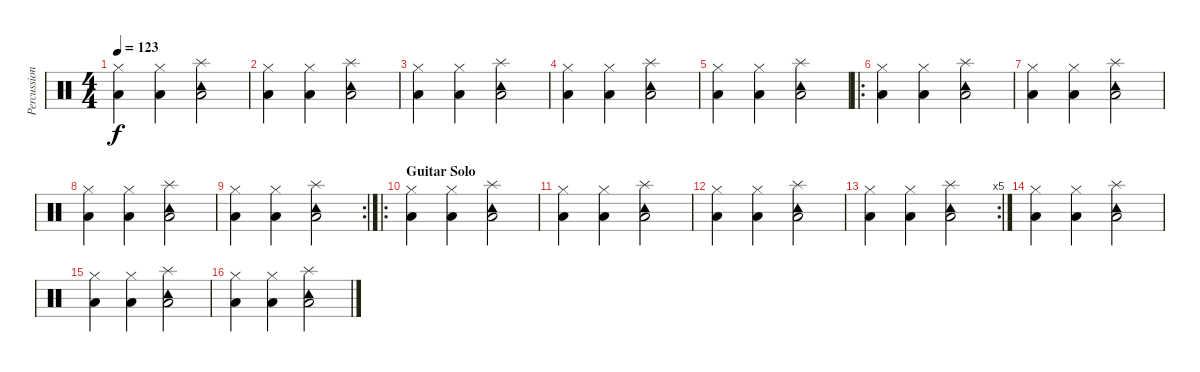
\track ("Percussion" "Percussion") {instrument percussion}
\staff {score}
\articulation defaults
\ts (4 4)
\tempo 123
\clef neutral
\ks c
("Low Floor Tom (hit)" "Hi-Hat (closed)").4{dy f} ("Low Floor Tom (hit)" "Hi-Hat (closed)").4 ("Splash (hit)" "Low Floor Tom (hit)" "Tambourine (hit)").2 |
("Low Floor Tom (hit)" "Hi-Hat (closed)").4 ("Low Floor Tom (hit)" "Hi-Hat (closed)").4 ("Splash (hit)" "Low Floor Tom (hit)" "Tambourine (hit)").2 |
("Low Floor Tom (hit)" "Hi-Hat (closed)").4 ("Low Floor Tom (hit)" "Hi-Hat (closed)").4 ("Splash (hit)" "Low Floor Tom (hit)" "Tambourine (hit)").2 |
("Low Floor Tom (hit)" "Hi-Hat (closed)").4 ("Low Floor Tom (hit)" "Hi-Hat (closed)").4 ("Splash (hit)" "Low Floor Tom (hit)" "Tambourine (hit)").2 |
("Low Floor Tom (hit)" "Hi-Hat (closed)").4 ("Low Floor Tom (hit)" "Hi-Hat (closed)").4 ("Splash (hit)" "Low Floor Tom (hit)" "Tambourine (hit)").2 |
\ro
("Low Floor Tom (hit)" "Hi-Hat (closed)").4 ("Low Floor Tom (hit)" "Hi-Hat (closed)").4 ("Splash (hit)" "Low Floor Tom (hit)" "Tambourine (hit)").2 |
("Low Floor Tom (hit)" "Hi-Hat (closed)").4 ("Low Floor Tom (hit)" "Hi-Hat (closed)").4 ("Splash (hit)" "Low Floor Tom (hit)" "Tambourine (hit)").2 |
("Low Floor Tom (hit)" "Hi-Hat (closed)").4 ("Low Floor Tom (hit)" "Hi-Hat (closed)").4 ("Splash (hit)" "Low Floor Tom (hit)" "Tambourine (hit)").2 |
\rc 2
("Low Floor Tom (hit)" "Hi-Hat (closed)").4 ("Low Floor Tom (hit)" "Hi-Hat (closed)").4 ("Splash (hit)" "Low Floor Tom (hit)" "Tambourine (hit)").2 |
\ro
\section ("" "Guitar Solo")
("Low Floor Tom (hit)" "Hi-Hat (closed)").4 ("Low Floor Tom (hit)" "Hi-Hat (closed)").4 ("Splash (hit)" "Low Floor Tom (hit)" "Tambourine (hit)").2 |
("Low Floor Tom (hit)" "Hi-Hat (closed)").4 ("Low Floor Tom (hit)" "Hi-Hat (closed)").4 ("Splash (hit)" "Low Floor Tom (hit)" "Tambourine (hit)").2 |
("Low Floor Tom (hit)" "Hi-Hat (closed)").4 ("Low Floor Tom (hit)" "Hi-Hat (closed)").4 ("Splash (hit)" "Low Floor Tom (hit)" "Tambourine (hit)").2 |
\rc 5
("Low Floor Tom (hit)" "Hi-Hat (closed)").4 ("Low Floor Tom (hit)" "Hi-Hat (closed)").4 ("Splash (hit)" "Low Floor Tom (hit)" "Tambourine (hit)").2 |
("Low Floor Tom (hit)" "Hi-Hat (closed)").4 ("Low Floor Tom (hit)" "Hi-Hat (closed)").4 ("Splash (hit)" "Low Floor Tom (hit)" "Tambourine (hit)").2 |
("Low Floor Tom (hit)" "Hi-Hat (closed)").4 ("Low Floor Tom (hit)" "Hi-Hat (closed)").4 ("Splash (hit)" "Low Floor Tom (hit)" "Tambourine (hit)").2 |
("Low Floor Tom (hit)" "Hi-Hat (closed)").4 ("Low Floor Tom (hit)" "Hi-Hat (closed)").4 ("Splash (hit)" "Low Floor Tom (hit)" "Tambourine (hit)").2
